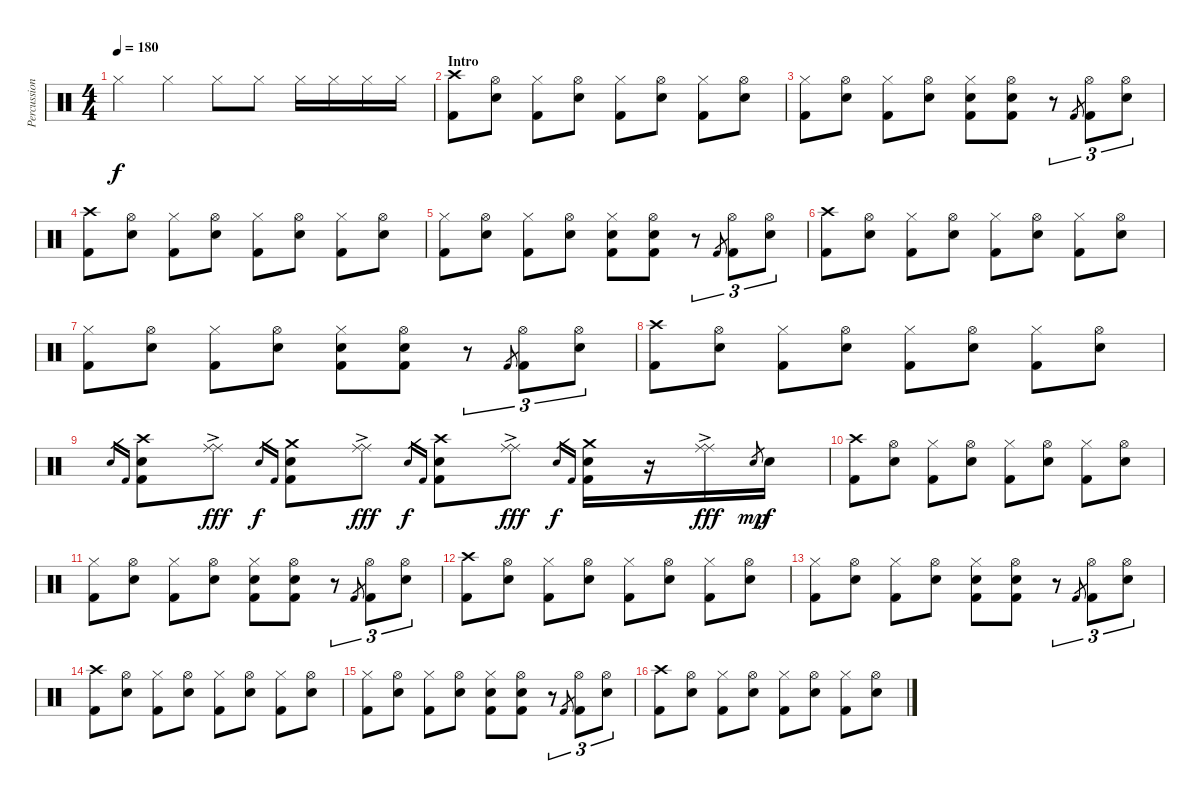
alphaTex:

\track ("Percussions" "Percussion") {instrument percussion}
\staff {score}
\articulation defaults
\ts (4 4)
\tempo 180
\clef neutral
\ks c "Hi-Hat (closed)".4{dy f} "Hi-Hat (closed)".4 "Hi-Hat (closed)".8 "Hi-Hat (closed)".8 "Hi-Hat (closed)".16 "Hi-Hat (closed)".16 "Hi-Hat (closed)".16 "Hi-Hat (closed)".16
|
\section ("" "Intro")
("Crash high (hit)" "Kick (hit) 2").8 ("Hi-Hat (open)" "Snare (hit) 2").8 ("Hi-Hat (closed)" "Kick (hit) 2").8 ("Hi-Hat (open)" "Snare (hit) 2").8 ("Hi-Hat (closed)" "Kick (hit) 2").8 ("Hi-Hat (open)" "Snare (hit) 2").8 ("Hi-Hat (closed)" "Kick (hit) 2").8 ("Hi-Hat (open)" "Snare (hit) 2").8 |
("Hi-Hat (closed)" "Kick (hit) 2").8 ("Hi-Hat (open)" "Snare (hit) 2").8 ("Hi-Hat (closed)" "Kick (hit) 2").8 ("Hi-Hat (open)" "Snare (hit) 2").8 ("Hi-Hat (closed)" "Snare (hit) 2" "Kick (hit) 2").8 ("Hi-Hat (open)" "Snare (hit) 2" "Kick (hit) 2").8 r.8{tu (3 2)} "Kick (hit) 2".8{gr} ("Hi-Hat (open)" "Kick (hit) 2").8{tu (3 2)} ("Hi-Hat (open)" "Snare (hit) 2").8{tu (3 2)} |
("Crash high (hit)" "Kick (hit) 2").8 ("Hi-Hat (open)" "Snare (hit) 2").8 ("Hi-Hat (closed)" "Kick (hit) 2").8 ("Hi-Hat (open)" "Snare (hit) 2").8 ("Hi-Hat (closed)" "Kick (hit) 2").8 ("Hi-Hat (open)" "Snare (hit) 2").8 ("Hi-Hat (closed)" "Kick (hit) 2").8 ("Hi-Hat (open)" "Snare (hit) 2").8 |
("Hi-Hat (closed)" "Kick (hit) 2").8 ("Hi-Hat (open)" "Snare (hit) 2").8 ("Hi-Hat (closed)" "Kick (hit) 2").8 ("Hi-Hat (open)" "Snare (hit) 2").8 ("Hi-Hat (closed)" "Snare (hit) 2" "Kick (hit) 2").8 ("Hi-Hat (open)" "Snare (hit) 2" "Kick (hit) 2").8 r.8{tu (3 2)} "Kick (hit) 2".8{gr} ("Hi-Hat (open)" "Kick (hit) 2").8{tu (3 2)} ("Hi-Hat (open)" "Snare (hit) 2").8{tu (3 2)} |
("Crash high (hit)" "Kick (hit) 2").8 ("Hi-Hat (open)" "Snare (hit) 2").8 ("Hi-Hat (closed)" "Kick (hit) 2").8 ("Hi-Hat (open)" "Snare (hit) 2").8 ("Hi-Hat (closed)" "Kick (hit) 2").8 ("Hi-Hat (open)" "Snare (hit) 2").8 ("Hi-Hat (closed)" "Kick (hit) 2").8 ("Hi-Hat (open)" "Snare (hit) 2").8 |
("Hi-Hat (closed)" "Kick (hit) 2").8 ("Hi-Hat (open)" "Snare (hit) 2").8 ("Hi-Hat (closed)" "Kick (hit) 2").8 ("Hi-Hat (open)" "Snare (hit) 2").8 ("Hi-Hat (closed)" "Snare (hit) 2" "Kick (hit) 2").8 ("Hi-Hat (open)" "Snare (hit) 2" "Kick (hit) 2").8 r.8{tu (3 2)} "Kick (hit) 2".8{gr} ("Hi-Hat (open)" "Kick (hit) 2").8{tu (3 2)} ("Hi-Hat (open)" "Snare (hit) 2").8{tu (3 2)} |
("Crash high (hit)" "Kick (hit) 2").8 ("Hi-Hat (open)" "Snare (hit) 2").8 ("Hi-Hat (closed)" "Kick (hit) 2").8 ("Hi-Hat (open)" "Snare (hit) 2").8 ("Hi-Hat (closed)" "Kick (hit) 2").8 ("Hi-Hat (open)" "Snare (hit) 2").8 ("Hi-Hat (closed)" "Kick (hit) 2").8 ("Hi-Hat (open)" "Snare (hit) 2").8 |
"Snare (hit) 2".16{gr} "Kick (hit) 2".16{gr} ("Crash high (hit)" "Snare (hit) 2" "Kick (hit) 2").8 ("Ride (middle)"{ac} "Ride (middle)"{ac}).8{dy fff} "Snare (hit) 2".16{gr dy f} "Kick (hit) 2".16{gr} ("Crash medium (hit)" "Snare (hit) 2" "Kick (hit) 2").8 ("Ride (middle)"{ac} "Ride (middle)"{ac}).8{dy fff} "Snare (hit) 2".16{gr dy f} "Kick (hit) 2".16{gr} ("Crash high (hit)" "Snare (hit) 2" "Kick (hit) 2").8 ("Ride (middle)"{ac} "Ride (middle)"{ac}).8{dy fff} "Snare (hit) 2".16{gr dy f} "Kick (hit) 2".16{gr} ("Crash medium (hit)" "Snare (hit) 2" "Kick (hit) 2").16 r.16 ("Ride (middle)"{ac} "Ride (middle)"{ac}).16{dy fff} "Snare (hit) 2".8{gr dy mp} "Snare (hit) 2".16{dy f} |
("Crash high (hit)" "Kick (hit) 2").8 ("Hi-Hat (open)" "Snare (hit) 2").8 ("Hi-Hat (closed)" "Kick (hit) 2").8 ("Hi-Hat (open)" "Snare (hit) 2").8 ("Hi-Hat (closed)" "Kick (hit) 2").8 ("Hi-Hat (open)" "Snare (hit) 2").8 ("Hi-Hat (closed)" "Kick (hit) 2").8 ("Hi-Hat (open)" "Snare (hit) 2").8 |
("Hi-Hat (closed)" "Kick (hit) 2").8 ("Hi-Hat (open)" "Snare (hit) 2").8 ("Hi-Hat (closed)" "Kick (hit) 2").8 ("Hi-Hat (open)" "Snare (hit) 2").8 ("Hi-Hat (closed)" "Snare (hit) 2" "Kick (hit) 2").8 ("Hi-Hat (open)" "Snare (hit) 2" "Kick (hit) 2").8 r.8{tu (3 2)} "Kick (hit) 2".8{gr} ("Hi-Hat (open)" "Kick (hit) 2").8{tu (3 2)} ("Hi-Hat (open)" "Snare (hit) 2").8{tu (3 2)} |
("Crash high (hit)" "Kick (hit) 2").8 ("Hi-Hat (open)" "Snare (hit) 2").8 ("Hi-Hat (closed)" "Kick (hit) 2").8 ("Hi-Hat (open)" "Snare (hit) 2").8 ("Hi-Hat (closed)" "Kick (hit) 2").8 ("Hi-Hat (open)" "Snare (hit) 2").8 ("Hi-Hat (closed)" "Kick (hit) 2").8 ("Hi-Hat (open)" "Snare (hit) 2").8 |
("Hi-Hat (closed)" "Kick (hit) 2").8 ("Hi-Hat (open)" "Snare (hit) 2").8 ("Hi-Hat (closed)" "Kick (hit) 2").8 ("Hi-Hat (open)" "Snare (hit) 2").8 ("Hi-Hat (closed)" "Snare (hit) 2" "Kick (hit) 2").8 ("Hi-Hat (open)" "Snare (hit) 2" "Kick (hit) 2").8 r.8{tu (3 2)} "Kick (hit) 2".8{gr} ("Hi-Hat (open)" "Kick (hit) 2").8{tu (3 2)} ("Hi-Hat (open)" "Snare (hit) 2").8{tu (3 2)} |
("Crash high (hit)" "Kick (hit) 2").8 ("Hi-Hat (open)" "Snare (hit) 2").8 ("Hi-Hat (closed)" "Kick (hit) 2").8 ("Hi-Hat (open)" "Snare (hit) 2").8 ("Hi-Hat (closed)" "Kick (hit) 2").8 ("Hi-Hat (open)" "Snare (hit) 2").8 ("Hi-Hat (closed)" "Kick (hit) 2").8 ("Hi-Hat (open)" "Snare (hit) 2").8 |
("Hi-Hat (closed)" "Kick (hit) 2").8 ("Hi-Hat (open)" "Snare (hit) 2").8 ("Hi-Hat (closed)" "Kick (hit) 2").8 ("Hi-Hat (open)" "Snare (hit) 2").8 ("Hi-Hat (closed)" "Snare (hit) 2" "Kick (hit) 2").8 ("Hi-Hat (open)" "Snare (hit) 2" "Kick (hit) 2").8 r.8{tu (3 2)} "Kick (hit) 2".8{gr} ("Hi-Hat (open)" "Kick (hit) 2").8{tu (3 2)} ("Hi-Hat (open)" "Snare (hit) 2").8{tu (3 2)} |
("Crash high (hit)" "Kick (hit) 2").8 ("Hi-Hat (open)" "Snare (hit) 2").8 ("Hi-Hat (closed)" "Kick (hit) 2").8 ("Hi-Hat (open)" "Snare (hit) 2").8 ("Hi-Hat (closed)" "Kick (hit) 2").8 ("Hi-Hat (open)" "Snare (hit) 2").8 ("Hi-Hat (closed)" "Kick (hit) 2").8 ("Hi-Hat (open)" "Snare (hit) 2").8
